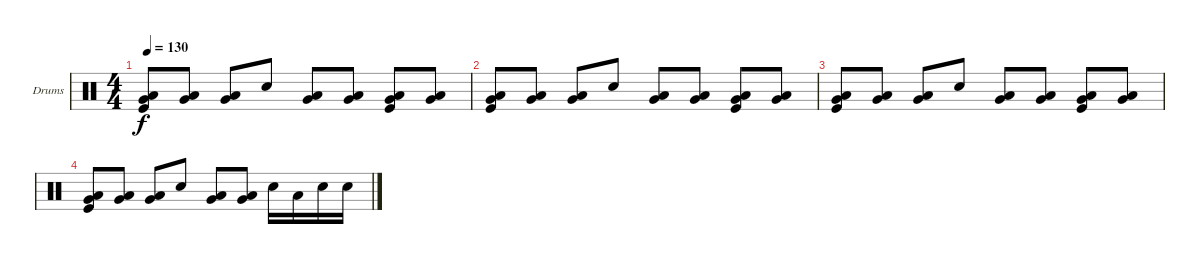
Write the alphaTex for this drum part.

\bracketExtendMode groupsimilarinstruments
\firstSystemTrackNameOrientation horizontal
\otherSystemsTrackNameOrientation horizontal
\track ("Drumkit" "Drums") {instrument percussion}
\staff {score}
\articulation defaults
\ts (4 4)
\tempo 130
\clef neutral
\ks c
("Low Tom (hit)" "Very Low Tom (hit)" "Kick (hit)").8{dy f} ("Low Tom (hit)" "Very Low Tom (hit)").8 ("Low Tom (hit)" "Very Low Tom (hit)").8 "Snare (hit) 2".8 ("Low Tom (hit)" "Very Low Tom (hit)").8 ("Low Tom (hit)" "Very Low Tom (hit)").8 ("Low Tom (hit)" "Very Low Tom (hit)" "Kick (hit)").8 ("Low Tom (hit)" "Very Low Tom (hit)").8 |
("Low Tom (hit)" "Very Low Tom (hit)" "Kick (hit)").8 ("Low Tom (hit)" "Very Low Tom (hit)").8 ("Low Tom (hit)" "Very Low Tom (hit)").8 "Snare (hit) 2".8 ("Low Tom (hit)" "Very Low Tom (hit)").8 ("Low Tom (hit)" "Very Low Tom (hit)").8 ("Low Tom (hit)" "Very Low Tom (hit)" "Kick (hit)").8 ("Low Tom (hit)" "Very Low Tom (hit)").8 |
("Low Tom (hit)" "Very Low Tom (hit)" "Kick (hit)").8 ("Low Tom (hit)" "Very Low Tom (hit)").8 ("Low Tom (hit)" "Very Low Tom (hit)").8 "Snare (hit) 2".8 ("Low Tom (hit)" "Very Low Tom (hit)").8 ("Low Tom (hit)" "Very Low Tom (hit)").8 ("Low Tom (hit)" "Very Low Tom (hit)" "Kick (hit)").8 ("Low Tom (hit)" "Very Low Tom (hit)").8 |
("Low Tom (hit)" "Very Low Tom (hit)" "Kick (hit)").8 ("Low Tom (hit)" "Very Low Tom (hit)").8 ("Low Tom (hit)" "Very Low Tom (hit)").8 "Snare (hit) 2".8 ("Low Tom (hit)" "Very Low Tom (hit)").8 ("Low Tom (hit)" "Very Low Tom (hit)").8 "Snare (hit) 2".16 "Low Tom (hit)".16 "Snare (hit) 2".16 "Snare (hit) 2".16
